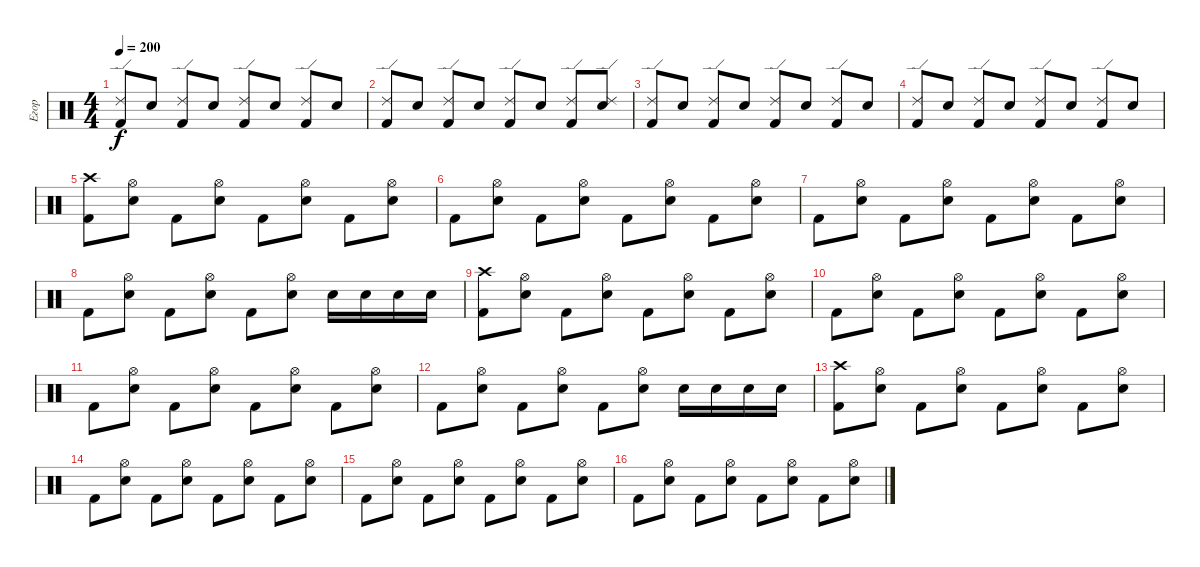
\track ("Егор" "Егор") {instrument percussion}
\staff {score}
\articulation defaults
\ts (4 4)
\tempo 200
\clef neutral
\ks c
("Kick (hit) 2" "Ride (edge) 2").8{dy f} "Snare (hit) 2".8 ("Kick (hit) 2" "Ride (edge) 2").8 "Snare (hit) 2".8 ("Kick (hit) 2" "Ride (edge) 2").8 "Snare (hit) 2".8 ("Kick (hit) 2" "Ride (edge) 2").8 "Snare (hit) 2".8 |
("Kick (hit) 2" "Ride (edge) 2").8 "Snare (hit) 2".8 ("Kick (hit) 2" "Ride (edge) 2").8 "Snare (hit) 2".8 ("Kick (hit) 2" "Ride (edge) 2").8 "Snare (hit) 2".8 ("Kick (hit) 2" "Ride (edge) 2").8 ("Snare (hit) 2" "Ride (edge) 2").8 |
("Kick (hit) 2" "Ride (edge) 2").8 "Snare (hit) 2".8 ("Kick (hit) 2" "Ride (edge) 2").8 "Snare (hit) 2".8 ("Kick (hit) 2" "Ride (edge) 2").8 "Snare (hit) 2".8 ("Kick (hit) 2" "Ride (edge) 2").8 "Snare (hit) 2".8 |
("Kick (hit) 2" "Ride (edge) 2").8 "Snare (hit) 2".8 ("Kick (hit) 2" "Ride (edge) 2").8 "Snare (hit) 2".8 ("Kick (hit) 2" "Ride (edge) 2").8 "Snare (hit) 2".8 ("Kick (hit) 2" "Ride (edge) 2").8 "Snare (hit) 2".8 |
("Crash high (hit)" "Kick (hit) 2").8 ("Hi-Hat (open)" "Snare (hit) 2").8 "Kick (hit) 2".8 ("Hi-Hat (open)" "Snare (hit) 2").8 "Kick (hit) 2".8 ("Hi-Hat (open)" "Snare (hit) 2").8 "Kick (hit) 2".8 ("Hi-Hat (open)" "Snare (hit) 2").8 |
"Kick (hit) 2".8 ("Hi-Hat (open)" "Snare (hit) 2").8 "Kick (hit) 2".8 ("Hi-Hat (open)" "Snare (hit) 2").8 "Kick (hit) 2".8 ("Hi-Hat (open)" "Snare (hit) 2").8 "Kick (hit) 2".8 ("Hi-Hat (open)" "Snare (hit) 2").8 |
"Kick (hit) 2".8 ("Hi-Hat (open)" "Snare (hit) 2").8 "Kick (hit) 2".8 ("Hi-Hat (open)" "Snare (hit) 2").8 "Kick (hit) 2".8 ("Hi-Hat (open)" "Snare (hit) 2").8 "Kick (hit) 2".8 ("Hi-Hat (open)" "Snare (hit) 2").8 |
"Kick (hit) 2".8 ("Hi-Hat (open)" "Snare (hit) 2").8 "Kick (hit) 2".8 ("Hi-Hat (open)" "Snare (hit) 2").8 "Kick (hit) 2".8 ("Hi-Hat (open)" "Snare (hit) 2").8 "Snare (hit) 2".16 "Snare (hit) 2".16 "Snare (hit) 2".16 "Snare (hit) 2".16 |
("Crash high (hit)" "Kick (hit) 2").8 ("Hi-Hat (open)" "Snare (hit) 2").8 "Kick (hit) 2".8 ("Hi-Hat (open)" "Snare (hit) 2").8 "Kick (hit) 2".8 ("Hi-Hat (open)" "Snare (hit) 2").8 "Kick (hit) 2".8 ("Hi-Hat (open)" "Snare (hit) 2").8 |
"Kick (hit) 2".8 ("Hi-Hat (open)" "Snare (hit) 2").8 "Kick (hit) 2".8 ("Hi-Hat (open)" "Snare (hit) 2").8 "Kick (hit) 2".8 ("Hi-Hat (open)" "Snare (hit) 2").8 "Kick (hit) 2".8 ("Hi-Hat (open)" "Snare (hit) 2").8 |
"Kick (hit) 2".8 ("Hi-Hat (open)" "Snare (hit) 2").8 "Kick (hit) 2".8 ("Hi-Hat (open)" "Snare (hit) 2").8 "Kick (hit) 2".8 ("Hi-Hat (open)" "Snare (hit) 2").8 "Kick (hit) 2".8 ("Hi-Hat (open)" "Snare (hit) 2").8 |
"Kick (hit) 2".8 ("Hi-Hat (open)" "Snare (hit) 2").8 "Kick (hit) 2".8 ("Hi-Hat (open)" "Snare (hit) 2").8 "Kick (hit) 2".8 ("Hi-Hat (open)" "Snare (hit) 2").8 "Snare (hit) 2".16 "Snare (hit) 2".16 "Snare (hit) 2".16 "Snare (hit) 2".16 |
("Crash high (hit)" "Kick (hit) 2").8 ("Hi-Hat (open)" "Snare (hit) 2").8 "Kick (hit) 2".8 ("Hi-Hat (open)" "Snare (hit) 2").8 "Kick (hit) 2".8 ("Hi-Hat (open)" "Snare (hit) 2").8 "Kick (hit) 2".8 ("Hi-Hat (open)" "Snare (hit) 2").8 |
"Kick (hit) 2".8 ("Hi-Hat (open)" "Snare (hit) 2").8 "Kick (hit) 2".8 ("Hi-Hat (open)" "Snare (hit) 2").8 "Kick (hit) 2".8 ("Hi-Hat (open)" "Snare (hit) 2").8 "Kick (hit) 2".8 ("Hi-Hat (open)" "Snare (hit) 2").8 |
"Kick (hit) 2".8 ("Hi-Hat (open)" "Snare (hit) 2").8 "Kick (hit) 2".8 ("Hi-Hat (open)" "Snare (hit) 2").8 "Kick (hit) 2".8 ("Hi-Hat (open)" "Snare (hit) 2").8 "Kick (hit) 2".8 ("Hi-Hat (open)" "Snare (hit) 2").8 |
"Kick (hit) 2".8 ("Hi-Hat (open)" "Snare (hit) 2").8 "Kick (hit) 2".8 ("Hi-Hat (open)" "Snare (hit) 2").8 "Kick (hit) 2".8 ("Hi-Hat (open)" "Snare (hit) 2").8 "Kick (hit) 2".8 ("Hi-Hat (open)" "Snare (hit) 2").8
